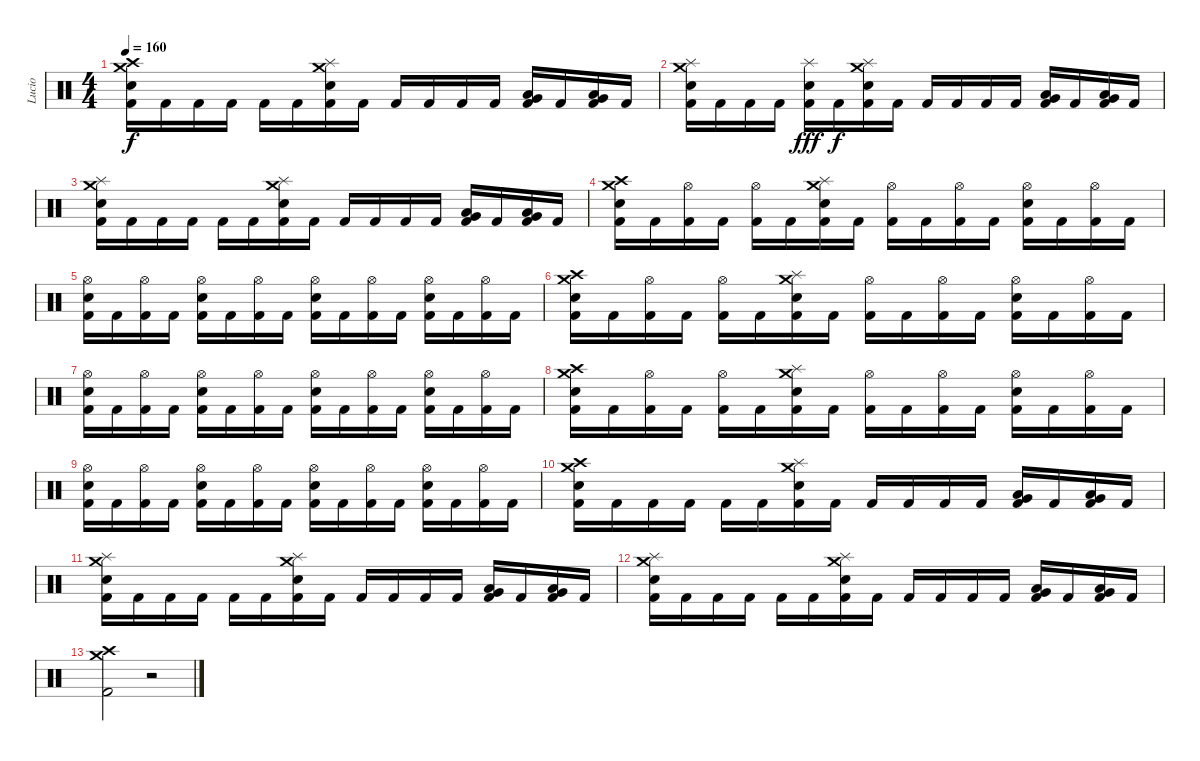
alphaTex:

\track ("Lucio" "Lucio") {instrument percussion}
\staff {score}
\articulation defaults
\ts (4 4)
\tempo 160
\clef neutral
\ks c
("Crash medium (hit)" "Crash high (hit)" "Electric Snare (hit)" "Kick (hit) 2").16{dy f} "Kick (hit) 2".16 "Kick (hit) 2".16 "Kick (hit) 2".16 "Kick (hit) 2".16 "Kick (hit) 2".16 ("Crash medium (hit)" "Splash (hit)" "Electric Snare (hit)" "Kick (hit) 2").16 "Kick (hit) 2".16 "Kick (hit) 2".16 "Kick (hit) 2".16 "Kick (hit) 2".16 "Kick (hit) 2".16 ("Low Tom (hit)" "Very Low Tom (hit)" "Kick (hit) 2").16 "Kick (hit) 2".16 ("Low Tom (hit)" "Very Low Tom (hit)" "Kick (hit) 2").16 "Kick (hit) 2".16 |
("Crash medium (hit)" "Splash (hit)" "Electric Snare (hit)" "Kick (hit) 2").16 "Kick (hit) 2".16 "Kick (hit) 2".16 "Kick (hit) 2".16 ("Splash (hit)" "Electric Snare (hit)" "Kick (hit) 2").16{dy fff} "Kick (hit) 2".16{dy f} ("Crash medium (hit)" "Splash (hit)" "Electric Snare (hit)" "Kick (hit) 2").16 "Kick (hit) 2".16 "Kick (hit) 2".16 "Kick (hit) 2".16 "Kick (hit) 2".16 "Kick (hit) 2".16 ("Low Tom (hit)" "Very Low Tom (hit)" "Kick (hit) 2").16 "Kick (hit) 2".16 ("Low Tom (hit)" "Very Low Tom (hit)" "Kick (hit) 2").16 "Kick (hit) 2".16 |
("Crash medium (hit)" "Splash (hit)" "Electric Snare (hit)" "Kick (hit) 2").16 "Kick (hit) 2".16 "Kick (hit) 2".16 "Kick (hit) 2".16 "Kick (hit) 2".16 "Kick (hit) 2".16 ("Crash medium (hit)" "Splash (hit)" "Electric Snare (hit)" "Kick (hit) 2").16 "Kick (hit) 2".16 "Kick (hit) 2".16 "Kick (hit) 2".16 "Kick (hit) 2".16 "Kick (hit) 2".16 ("Low Tom (hit)" "Very Low Tom (hit)" "Kick (hit) 2").16 "Kick (hit) 2".16 ("Low Tom (hit)" "Very Low Tom (hit)" "Kick (hit) 2").16 "Kick (hit) 2".16 |
("Crash medium (hit)" "Crash high (hit)" "Electric Snare (hit)" "Kick (hit) 2").16 "Kick (hit) 2".16 ("Hi-Hat (open)" "Kick (hit) 2").16 "Kick (hit) 2".16 ("Hi-Hat (open)" "Kick (hit) 2").16 "Kick (hit) 2".16 ("Crash medium (hit)" "Splash (hit)" "Electric Snare (hit)" "Kick (hit) 2").16 "Kick (hit) 2".16 ("Hi-Hat (open)" "Kick (hit) 2").16 "Kick (hit) 2".16 ("Hi-Hat (open)" "Kick (hit) 2").16 "Kick (hit) 2".16 ("Hi-Hat (open)" "Electric Snare (hit)" "Kick (hit) 2").16 "Kick (hit) 2".16 ("Hi-Hat (open)" "Kick (hit) 2").16 "Kick (hit) 2".16 |
("Hi-Hat (open)" "Electric Snare (hit)" "Kick (hit) 2").16 "Kick (hit) 2".16 ("Hi-Hat (open)" "Kick (hit) 2").16 "Kick (hit) 2".16 ("Hi-Hat (open)" "Electric Snare (hit)" "Kick (hit) 2").16 "Kick (hit) 2".16 ("Hi-Hat (open)" "Kick (hit) 2").16 "Kick (hit) 2".16 ("Hi-Hat (open)" "Electric Snare (hit)" "Kick (hit) 2").16 "Kick (hit) 2".16 ("Hi-Hat (open)" "Kick (hit) 2").16 "Kick (hit) 2".16 ("Hi-Hat (open)" "Electric Snare (hit)" "Kick (hit) 2").16 "Kick (hit) 2".16 ("Hi-Hat (open)" "Kick (hit) 2").16 "Kick (hit) 2".16 |
("Crash medium (hit)" "Crash high (hit)" "Electric Snare (hit)" "Kick (hit) 2").16 "Kick (hit) 2".16 ("Hi-Hat (open)" "Kick (hit) 2").16 "Kick (hit) 2".16 ("Hi-Hat (open)" "Kick (hit) 2").16 "Kick (hit) 2".16 ("Crash medium (hit)" "Splash (hit)" "Electric Snare (hit)" "Kick (hit) 2").16 "Kick (hit) 2".16 ("Hi-Hat (open)" "Kick (hit) 2").16 "Kick (hit) 2".16 ("Hi-Hat (open)" "Kick (hit) 2").16 "Kick (hit) 2".16 ("Hi-Hat (open)" "Electric Snare (hit)" "Kick (hit) 2").16 "Kick (hit) 2".16 ("Hi-Hat (open)" "Kick (hit) 2").16 "Kick (hit) 2".16 |
("Hi-Hat (open)" "Electric Snare (hit)" "Kick (hit) 2").16 "Kick (hit) 2".16 ("Hi-Hat (open)" "Kick (hit) 2").16 "Kick (hit) 2".16 ("Hi-Hat (open)" "Electric Snare (hit)" "Kick (hit) 2").16 "Kick (hit) 2".16 ("Hi-Hat (open)" "Kick (hit) 2").16 "Kick (hit) 2".16 ("Hi-Hat (open)" "Electric Snare (hit)" "Kick (hit) 2").16 "Kick (hit) 2".16 ("Hi-Hat (open)" "Kick (hit) 2").16 "Kick (hit) 2".16 ("Hi-Hat (open)" "Electric Snare (hit)" "Kick (hit) 2").16 "Kick (hit) 2".16 ("Hi-Hat (open)" "Kick (hit) 2").16 "Kick (hit) 2".16 |
("Crash medium (hit)" "Crash high (hit)" "Electric Snare (hit)" "Kick (hit) 2").16 "Kick (hit) 2".16 ("Hi-Hat (open)" "Kick (hit) 2").16 "Kick (hit) 2".16 ("Hi-Hat (open)" "Kick (hit) 2").16 "Kick (hit) 2".16 ("Crash medium (hit)" "Splash (hit)" "Electric Snare (hit)" "Kick (hit) 2").16 "Kick (hit) 2".16 ("Hi-Hat (open)" "Kick (hit) 2").16 "Kick (hit) 2".16 ("Hi-Hat (open)" "Kick (hit) 2").16 "Kick (hit) 2".16 ("Hi-Hat (open)" "Electric Snare (hit)" "Kick (hit) 2").16 "Kick (hit) 2".16 ("Hi-Hat (open)" "Kick (hit) 2").16 "Kick (hit) 2".16 |
("Hi-Hat (open)" "Electric Snare (hit)" "Kick (hit) 2").16 "Kick (hit) 2".16 ("Hi-Hat (open)" "Kick (hit) 2").16 "Kick (hit) 2".16 ("Hi-Hat (open)" "Electric Snare (hit)" "Kick (hit) 2").16 "Kick (hit) 2".16 ("Hi-Hat (open)" "Kick (hit) 2").16 "Kick (hit) 2".16 ("Hi-Hat (open)" "Electric Snare (hit)" "Kick (hit) 2").16 "Kick (hit) 2".16 ("Hi-Hat (open)" "Kick (hit) 2").16 "Kick (hit) 2".16 ("Hi-Hat (open)" "Electric Snare (hit)" "Kick (hit) 2").16 "Kick (hit) 2".16 ("Hi-Hat (open)" "Kick (hit) 2").16 "Kick (hit) 2".16 |
("Crash medium (hit)" "Crash high (hit)" "Electric Snare (hit)" "Kick (hit) 2").16 "Kick (hit) 2".16 "Kick (hit) 2".16 "Kick (hit) 2".16 "Kick (hit) 2".16 "Kick (hit) 2".16 ("Crash medium (hit)" "Splash (hit)" "Electric Snare (hit)" "Kick (hit) 2").16 "Kick (hit) 2".16 "Kick (hit) 2".16 "Kick (hit) 2".16 "Kick (hit) 2".16 "Kick (hit) 2".16 ("Low Tom (hit)" "Very Low Tom (hit)" "Kick (hit) 2").16 "Kick (hit) 2".16 ("Low Tom (hit)" "Very Low Tom (hit)" "Kick (hit) 2").16 "Kick (hit) 2".16 |
("Crash medium (hit)" "Splash (hit)" "Electric Snare (hit)" "Kick (hit) 2").16 "Kick (hit) 2".16 "Kick (hit) 2".16 "Kick (hit) 2".16 "Kick (hit) 2".16 "Kick (hit) 2".16 ("Crash medium (hit)" "Splash (hit)" "Electric Snare (hit)" "Kick (hit) 2").16 "Kick (hit) 2".16 "Kick (hit) 2".16 "Kick (hit) 2".16 "Kick (hit) 2".16 "Kick (hit) 2".16 ("Low Tom (hit)" "Very Low Tom (hit)" "Kick (hit) 2").16 "Kick (hit) 2".16 ("Low Tom (hit)" "Very Low Tom (hit)" "Kick (hit) 2").16 "Kick (hit) 2".16 |
("Crash medium (hit)" "Splash (hit)" "Electric Snare (hit)" "Kick (hit) 2").16 "Kick (hit) 2".16 "Kick (hit) 2".16 "Kick (hit) 2".16 "Kick (hit) 2".16 "Kick (hit) 2".16 ("Crash medium (hit)" "Splash (hit)" "Electric Snare (hit)" "Kick (hit) 2").16 "Kick (hit) 2".16 "Kick (hit) 2".16 "Kick (hit) 2".16 "Kick (hit) 2".16 "Kick (hit) 2".16 ("Low Tom (hit)" "Very Low Tom (hit)" "Kick (hit) 2").16 "Kick (hit) 2".16 ("Low Tom (hit)" "Very Low Tom (hit)" "Kick (hit) 2").16 "Kick (hit) 2".16 |
("Crash medium (hit)" "Crash high (hit)" "Kick (hit) 2").2 r.2{volume 0}
